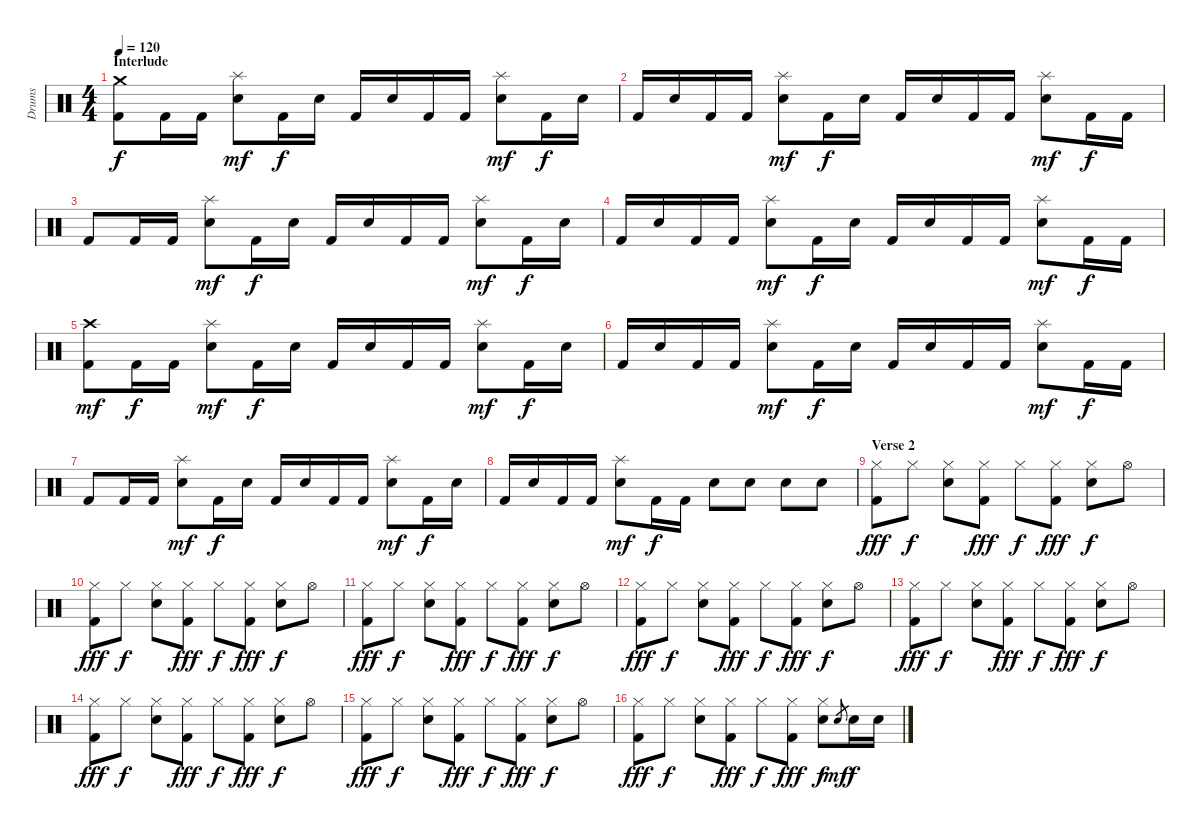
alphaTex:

\track ("Drums" "Drums") {instrument percussion}
\staff {score}
\articulation defaults
\ts (4 4)
\section ("" "Interlude")
\tempo 120
\clef neutral
\ks c
("Kick (hit) 2" "Crash medium (hit)").8{dy f} "Kick (hit) 2".16 "Kick (hit) 2".16 ("Electric Snare (hit)" "Splash (hit)").8{dy mf} "Kick (hit) 2".16{dy f} "Electric Snare (hit)".16 "Kick (hit) 2".16 "Electric Snare (hit)".16 "Kick (hit) 2".16 "Kick (hit) 2".16 ("Electric Snare (hit)" "Splash (hit)").8{dy mf} "Kick (hit) 2".16{dy f} "Electric Snare (hit)".16 |
"Kick (hit) 2".16 "Electric Snare (hit)".16 "Kick (hit) 2".16 "Kick (hit) 2".16 ("Electric Snare (hit)" "Splash (hit)").8{dy mf} "Kick (hit) 2".16{dy f} "Electric Snare (hit)".16 "Kick (hit) 2".16 "Electric Snare (hit)".16 "Kick (hit) 2".16 "Kick (hit) 2".16 ("Electric Snare (hit)" "Splash (hit)").8{dy mf} "Kick (hit) 2".16{dy f} "Kick (hit) 2".16 |
"Kick (hit) 2".8 "Kick (hit) 2".16 "Kick (hit) 2".16 ("Electric Snare (hit)" "Splash (hit)").8{dy mf} "Kick (hit) 2".16{dy f} "Electric Snare (hit)".16 "Kick (hit) 2".16 "Electric Snare (hit)".16 "Kick (hit) 2".16 "Kick (hit) 2".16 ("Electric Snare (hit)" "Splash (hit)").8{dy mf} "Kick (hit) 2".16{dy f} "Electric Snare (hit)".16 |
"Kick (hit) 2".16 "Electric Snare (hit)".16 "Kick (hit) 2".16 "Kick (hit) 2".16 ("Electric Snare (hit)" "Splash (hit)").8{dy mf} "Kick (hit) 2".16{dy f} "Electric Snare (hit)".16 "Kick (hit) 2".16 "Electric Snare (hit)".16 "Kick (hit) 2".16 "Kick (hit) 2".16 ("Electric Snare (hit)" "Splash (hit)").8{dy mf} "Kick (hit) 2".16{dy f} "Kick (hit) 2".16 |
("Kick (hit) 2" "Crash high (hit)").8{dy mf} "Kick (hit) 2".16{dy f} "Kick (hit) 2".16 ("Electric Snare (hit)" "Splash (hit)").8{dy mf} "Kick (hit) 2".16{dy f} "Electric Snare (hit)".16 "Kick (hit) 2".16 "Electric Snare (hit)".16 "Kick (hit) 2".16 "Kick (hit) 2".16 ("Electric Snare (hit)" "Splash (hit)").8{dy mf} "Kick (hit) 2".16{dy f} "Electric Snare (hit)".16 |
"Kick (hit) 2".16 "Electric Snare (hit)".16 "Kick (hit) 2".16 "Kick (hit) 2".16 ("Electric Snare (hit)" "Splash (hit)").8{dy mf} "Kick (hit) 2".16{dy f} "Electric Snare (hit)".16 "Kick (hit) 2".16 "Electric Snare (hit)".16 "Kick (hit) 2".16 "Kick (hit) 2".16 ("Electric Snare (hit)" "Splash (hit)").8{dy mf} "Kick (hit) 2".16{dy f} "Kick (hit) 2".16 |
"Kick (hit) 2".8 "Kick (hit) 2".16 "Kick (hit) 2".16 ("Electric Snare (hit)" "Splash (hit)").8{dy mf} "Kick (hit) 2".16{dy f} "Electric Snare (hit)".16 "Kick (hit) 2".16 "Electric Snare (hit)".16 "Kick (hit) 2".16 "Kick (hit) 2".16 ("Electric Snare (hit)" "Splash (hit)").8{dy mf} "Kick (hit) 2".16{dy f} "Electric Snare (hit)".16 |
"Kick (hit) 2".16 "Electric Snare (hit)".16 "Kick (hit) 2".16 "Kick (hit) 2".16 ("Electric Snare (hit)" "Splash (hit)").8{dy mf} "Kick (hit) 2".16{dy f} "Kick (hit) 2".16 "Electric Snare (hit)".8 "Electric Snare (hit)".8 "Electric Snare (hit)".8 "Electric Snare (hit)".8 |
\section ("" "Verse 2")
("Kick (hit) 2" "Hi-Hat (closed)").8{dy fff} "Hi-Hat (closed)".8{dy f} ("Electric Snare (hit)" "Hi-Hat (closed)").8 ("Kick (hit) 2" "Hi-Hat (closed)").8{dy fff} "Hi-Hat (closed)".8{dy f} ("Kick (hit) 2" "Hi-Hat (closed)").8{dy fff} ("Electric Snare (hit)" "Hi-Hat (closed)").8{dy f} "Hi-Hat (open)".8 |
("Kick (hit) 2" "Hi-Hat (closed)").8{dy fff} "Hi-Hat (closed)".8{dy f} ("Electric Snare (hit)" "Hi-Hat (closed)").8 ("Kick (hit) 2" "Hi-Hat (closed)").8{dy fff} "Hi-Hat (closed)".8{dy f} ("Kick (hit) 2" "Hi-Hat (closed)").8{dy fff} ("Electric Snare (hit)" "Hi-Hat (closed)").8{dy f} "Hi-Hat (open)".8 |
("Kick (hit) 2" "Hi-Hat (closed)").8{dy fff} "Hi-Hat (closed)".8{dy f} ("Electric Snare (hit)" "Hi-Hat (closed)").8 ("Kick (hit) 2" "Hi-Hat (closed)").8{dy fff} "Hi-Hat (closed)".8{dy f} ("Kick (hit) 2" "Hi-Hat (closed)").8{dy fff} ("Electric Snare (hit)" "Hi-Hat (closed)").8{dy f} "Hi-Hat (open)".8 |
("Kick (hit) 2" "Hi-Hat (closed)").8{dy fff} "Hi-Hat (closed)".8{dy f} ("Electric Snare (hit)" "Hi-Hat (closed)").8 ("Kick (hit) 2" "Hi-Hat (closed)").8{dy fff} "Hi-Hat (closed)".8{dy f} ("Kick (hit) 2" "Hi-Hat (closed)").8{dy fff} ("Electric Snare (hit)" "Hi-Hat (closed)").8{dy f} "Hi-Hat (open)".8 |
("Kick (hit) 2" "Hi-Hat (closed)").8{dy fff} "Hi-Hat (closed)".8{dy f} ("Electric Snare (hit)" "Hi-Hat (closed)").8 ("Kick (hit) 2" "Hi-Hat (closed)").8{dy fff} "Hi-Hat (closed)".8{dy f} ("Kick (hit) 2" "Hi-Hat (closed)").8{dy fff} ("Electric Snare (hit)" "Hi-Hat (closed)").8{dy f} "Hi-Hat (open)".8 |
("Kick (hit) 2" "Hi-Hat (closed)").8{dy fff} "Hi-Hat (closed)".8{dy f} ("Electric Snare (hit)" "Hi-Hat (closed)").8 ("Kick (hit) 2" "Hi-Hat (closed)").8{dy fff} "Hi-Hat (closed)".8{dy f} ("Kick (hit) 2" "Hi-Hat (closed)").8{dy fff} ("Electric Snare (hit)" "Hi-Hat (closed)").8{dy f} "Hi-Hat (open)".8 |
("Kick (hit) 2" "Hi-Hat (closed)").8{dy fff} "Hi-Hat (closed)".8{dy f} ("Electric Snare (hit)" "Hi-Hat (closed)").8 ("Kick (hit) 2" "Hi-Hat (closed)").8{dy fff} "Hi-Hat (closed)".8{dy f} ("Kick (hit) 2" "Hi-Hat (closed)").8{dy fff} ("Electric Snare (hit)" "Hi-Hat (closed)").8{dy f} "Hi-Hat (open)".8 |
("Kick (hit) 2" "Hi-Hat (closed)").8{dy fff} "Hi-Hat (closed)".8{dy f} ("Electric Snare (hit)" "Hi-Hat (closed)").8 ("Kick (hit) 2" "Hi-Hat (closed)").8{dy fff} "Hi-Hat (closed)".8{dy f} ("Kick (hit) 2" "Hi-Hat (closed)").8{dy fff} ("Electric Snare (hit)" "Hi-Hat (closed)").8{dy f} "Electric Snare (hit)".8{gr dy mf} "Electric Snare (hit)".16{dy f} "Electric Snare (hit)".16
